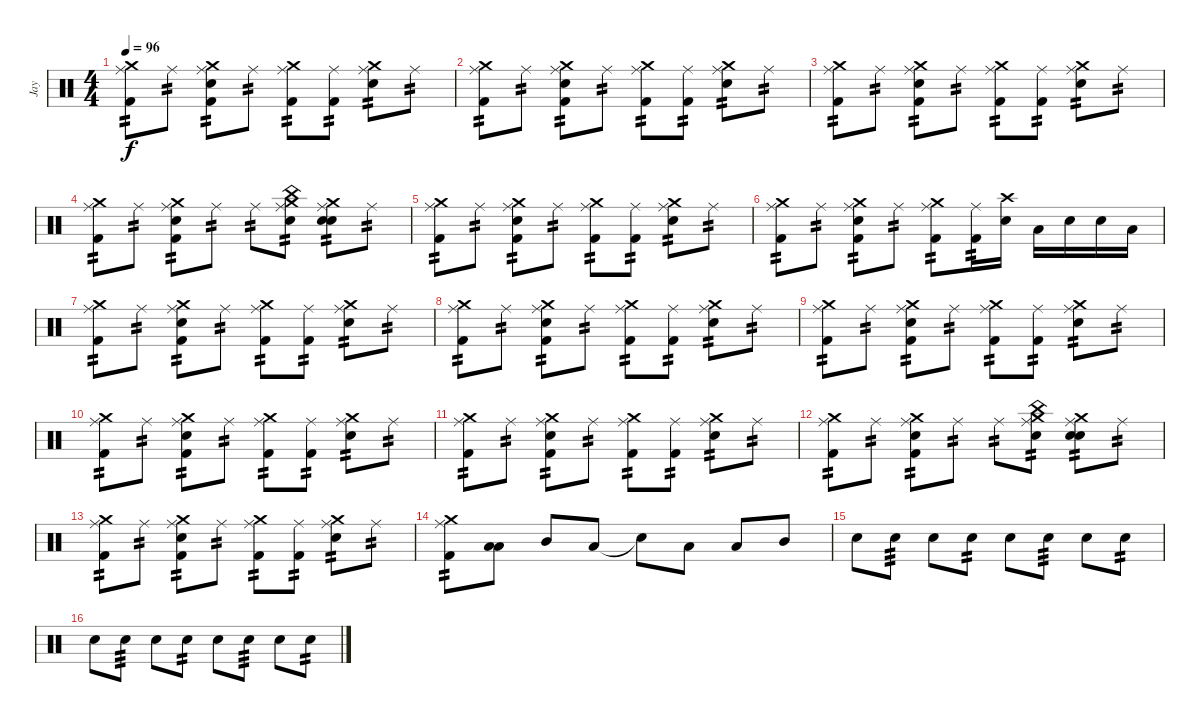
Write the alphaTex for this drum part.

\track ("Jay" "Jay") {instrument percussion}
\staff {score}
\articulation defaults
\ts (4 4)
\tempo 96
\clef neutral
\ks c
("Crash medium (hit)" "Ride (middle)" "Kick (hit) 2").8{tp 2 dy f} "Ride (middle)".8{tp 2} ("Crash medium (hit)" "Electric Snare (hit)" "Kick (hit) 2" "Ride (middle)").8{tp 2} "Ride (middle)".8{tp 2} ("Crash medium (hit)" "Ride (middle)" "Kick (hit) 2").8{tp 2} ("Ride (middle)" "Kick (hit) 2").8{tp 2} ("Crash medium (hit)" "Ride (middle)" "Electric Snare (hit)").8{tp 2} "Ride (middle)".8{tp 2} |
("Crash medium (hit)" "Ride (middle)" "Kick (hit) 2").8{tp 2} "Ride (middle)".8{tp 2} ("Crash medium (hit)" "Electric Snare (hit)" "Kick (hit) 2" "Ride (middle)").8{tp 2} "Ride (middle)".8{tp 2} ("Crash medium (hit)" "Ride (middle)" "Kick (hit) 2").8{tp 2} ("Ride (middle)" "Kick (hit) 2").8{tp 2} ("Crash medium (hit)" "Ride (middle)" "Electric Snare (hit)").8{tp 2} "Ride (middle)".8{tp 2} |
("Crash medium (hit)" "Ride (middle)" "Kick (hit) 2").8{tp 2} "Ride (middle)".8{tp 2} ("Crash medium (hit)" "Electric Snare (hit)" "Kick (hit) 2" "Ride (middle)").8{tp 2} "Ride (middle)".8{tp 2} ("Crash medium (hit)" "Ride (middle)" "Kick (hit) 2").8{tp 2} ("Ride (middle)" "Kick (hit) 2").8{tp 2} ("Crash medium (hit)" "Ride (middle)" "Electric Snare (hit)").8{tp 2} "Ride (middle)".8{tp 2} |
("Crash medium (hit)" "Ride (middle)" "Kick (hit) 2").8{tp 2} "Ride (middle)".8{tp 2} ("Crash medium (hit)" "Electric Snare (hit)" "Kick (hit) 2" "Ride (middle)").8{tp 2} "Ride (middle)".8{tp 2} "Ride (middle)".8{tp 2} ("Crash medium (hit)" "Ride (middle)" "Electric Snare (hit)" "China (hit)").8{tp 2} ("Crash medium (hit)" "Ride (middle)" "Electric Snare (hit)" "Snare (hit)").8{tp 2} "Ride (middle)".8{tp 2} |
("Crash medium (hit)" "Ride (middle)" "Kick (hit) 2").8{tp 2} "Ride (middle)".8{tp 2} ("Crash medium (hit)" "Electric Snare (hit)" "Kick (hit) 2" "Ride (middle)").8{tp 2} "Ride (middle)".8{tp 2} ("Crash medium (hit)" "Ride (middle)" "Kick (hit) 2").8{tp 2} ("Ride (middle)" "Kick (hit) 2").8{tp 2} ("Crash medium (hit)" "Ride (middle)" "Electric Snare (hit)").8{tp 2} "Ride (middle)".8{tp 2} |
("Crash medium (hit)" "Ride (middle)" "Kick (hit) 2").8{tp 2} "Ride (middle)".8{tp 2} ("Crash medium (hit)" "Electric Snare (hit)" "Kick (hit) 2" "Ride (middle)").8{tp 2} "Ride (middle)".8{tp 2} ("Crash medium (hit)" "Ride (middle)" "Kick (hit) 2").8{tp 2} ("Ride (middle)" "Kick (hit) 2").16{tp 2} ("Electric Snare (hit)" "Crash high (hit)").16 "Low Tom (hit)".16 "Electric Snare (hit)".16 "Electric Snare (hit)".16 "Low Tom (hit)".16 |
("Crash medium (hit)" "Ride (middle)" "Kick (hit) 2").8{tp 2} "Ride (middle)".8{tp 2} ("Crash medium (hit)" "Electric Snare (hit)" "Kick (hit) 2" "Ride (middle)").8{tp 2} "Ride (middle)".8{tp 2} ("Crash medium (hit)" "Ride (middle)" "Kick (hit) 2").8{tp 2} ("Ride (middle)" "Kick (hit) 2").8{tp 2} ("Crash medium (hit)" "Ride (middle)" "Electric Snare (hit)").8{tp 2} "Ride (middle)".8{tp 2} |
("Crash medium (hit)" "Ride (middle)" "Kick (hit) 2").8{tp 2} "Ride (middle)".8{tp 2} ("Crash medium (hit)" "Electric Snare (hit)" "Kick (hit) 2" "Ride (middle)").8{tp 2} "Ride (middle)".8{tp 2} ("Crash medium (hit)" "Ride (middle)" "Kick (hit) 2").8{tp 2} ("Ride (middle)" "Kick (hit) 2").8{tp 2} ("Crash medium (hit)" "Ride (middle)" "Electric Snare (hit)").8{tp 2} "Ride (middle)".8{tp 2} |
("Crash medium (hit)" "Ride (middle)" "Kick (hit) 2").8{tp 2} "Ride (middle)".8{tp 2} ("Crash medium (hit)" "Electric Snare (hit)" "Kick (hit) 2" "Ride (middle)").8{tp 2} "Ride (middle)".8{tp 2} ("Crash medium (hit)" "Ride (middle)" "Kick (hit) 2").8{tp 2} ("Ride (middle)" "Kick (hit) 2").8{tp 2} ("Crash medium (hit)" "Ride (middle)" "Electric Snare (hit)").8{tp 2} "Ride (middle)".8{tp 2} |
("Crash medium (hit)" "Ride (middle)" "Kick (hit) 2").8{tp 2} "Ride (middle)".8{tp 2} ("Crash medium (hit)" "Electric Snare (hit)" "Kick (hit) 2" "Ride (middle)").8{tp 2} "Ride (middle)".8{tp 2} ("Crash medium (hit)" "Ride (middle)" "Kick (hit) 2").8{tp 2} ("Ride (middle)" "Kick (hit) 2").8{tp 2} ("Crash medium (hit)" "Ride (middle)" "Electric Snare (hit)").8{tp 2} "Ride (middle)".8{tp 2} |
("Crash medium (hit)" "Ride (middle)" "Kick (hit) 2").8{tp 2} "Ride (middle)".8{tp 2} ("Crash medium (hit)" "Electric Snare (hit)" "Kick (hit) 2" "Ride (middle)").8{tp 2} "Ride (middle)".8{tp 2} ("Crash medium (hit)" "Ride (middle)" "Kick (hit) 2").8{tp 2} ("Ride (middle)" "Kick (hit) 2").8{tp 2} ("Crash medium (hit)" "Ride (middle)" "Electric Snare (hit)").8{tp 2} "Ride (middle)".8{tp 2} |
("Crash medium (hit)" "Ride (middle)" "Kick (hit) 2").8{tp 2} "Ride (middle)".8{tp 2} ("Crash medium (hit)" "Electric Snare (hit)" "Kick (hit) 2" "Ride (middle)").8{tp 2} "Ride (middle)".8{tp 2} "Ride (middle)".8{tp 2} ("Crash medium (hit)" "Ride (middle)" "Electric Snare (hit)" "China (hit)").8{tp 2} ("Crash medium (hit)" "Ride (middle)" "Electric Snare (hit)" "Snare (hit)").8{tp 2} "Ride (middle)".8{tp 2} |
("Crash medium (hit)" "Ride (middle)" "Kick (hit) 2").8{tp 2} "Ride (middle)".8{tp 2} ("Crash medium (hit)" "Electric Snare (hit)" "Kick (hit) 2" "Ride (middle)").8{tp 2} "Ride (middle)".8{tp 2} ("Crash medium (hit)" "Ride (middle)" "Kick (hit) 2").8{tp 2} ("Ride (middle)" "Kick (hit) 2").8{tp 2} ("Crash medium (hit)" "Ride (middle)" "Electric Snare (hit)").8{tp 2} "Ride (middle)".8{tp 2} |
("Crash medium (hit)" "Ride (middle)" "Kick (hit) 2").8{tp 2} ("Low Tom (hit)" "Low Tom (hit)").8 "Mid Tom (hit)".8 "Low Tom (hit)".8 "Snare (hit)"{t}.8 "Low Tom (hit)".8 "Low Tom (hit)".8 "Mid Tom (hit)".8 |
"Electric Snare (hit)".8 "Electric Snare (hit)".8{tp 3} "Electric Snare (hit)".8 "Electric Snare (hit)".8{tp 2} "Electric Snare (hit)".8 "Electric Snare (hit)".8{tp 3} "Electric Snare (hit)".8 "Electric Snare (hit)".8{tp 2} |
"Electric Snare (hit)".8 "Electric Snare (hit)".8{tp 3} "Electric Snare (hit)".8 "Electric Snare (hit)".8{tp 2} "Electric Snare (hit)".8 "Electric Snare (hit)".8{tp 3} "Electric Snare (hit)".8 "Electric Snare (hit)".8{tp 2}
